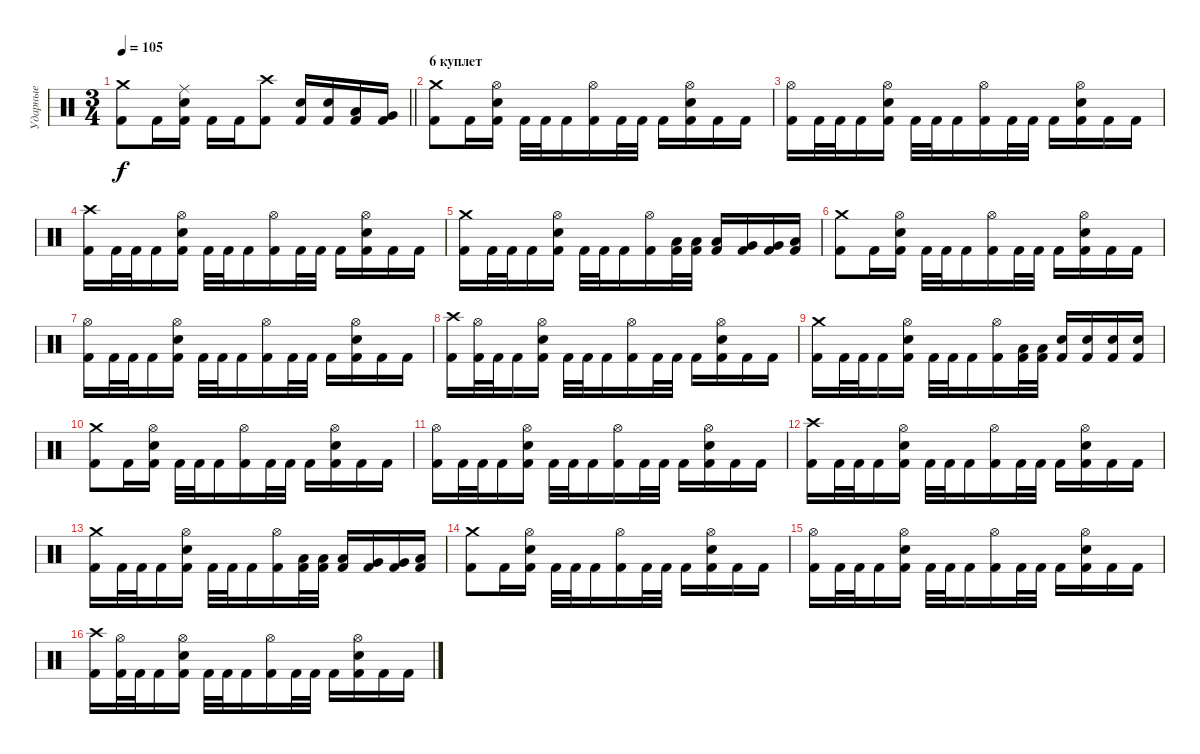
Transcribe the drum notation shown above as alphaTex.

\track ("Ударные" "Ударные") {instrument percussion}
\staff {score}
\articulation defaults
\ts (3 4)
\tempo 105
\clef neutral
\barLineRight lightlight
\ks c
("Kick (hit) 2" "Crash medium (hit)").8{dy f} "Kick (hit) 2".16 ("Kick (hit) 2" "Snare (hit) 2" "Ride (middle)").16 "Kick (hit) 2".16 "Kick (hit) 2".16 ("Kick (hit) 2" "Crash high (hit)").8 ("Kick (hit) 2" "Snare (hit) 2").16 ("Kick (hit) 2" "Snare (hit) 2").16 ("Kick (hit) 2" "Low Tom (hit)").16 ("Kick (hit) 2" "Very Low Tom (hit)").16 |
\section ("" "6 куплет")
("Kick (hit) 2" "Crash medium (hit)").8 "Kick (hit) 2".16 ("Kick (hit) 2" "Snare (hit) 2" "Hi-Hat (open)").16 "Kick (hit) 2".32 "Kick (hit) 2".32 "Kick (hit) 2".16 ("Kick (hit) 2" "Hi-Hat (open)").16 "Kick (hit) 2".32 "Kick (hit) 2".32 "Kick (hit) 2".16 ("Kick (hit) 2" "Snare (hit) 2" "Hi-Hat (open)").16 "Kick (hit) 2".16 "Kick (hit) 2".16 |
("Kick (hit) 2" "Hi-Hat (open)").16 "Kick (hit) 2".32 "Kick (hit) 2".32 "Kick (hit) 2".16 ("Kick (hit) 2" "Snare (hit) 2" "Hi-Hat (open)").16 "Kick (hit) 2".32 "Kick (hit) 2".32 "Kick (hit) 2".16 ("Kick (hit) 2" "Hi-Hat (open)").16 "Kick (hit) 2".32 "Kick (hit) 2".32 "Kick (hit) 2".16 ("Kick (hit) 2" "Snare (hit) 2" "Hi-Hat (open)").16 "Kick (hit) 2".16 "Kick (hit) 2".16 |
("Kick (hit) 2" "Crash high (hit)").16 "Kick (hit) 2".32 "Kick (hit) 2".32 "Kick (hit) 2".16 ("Kick (hit) 2" "Snare (hit) 2" "Hi-Hat (open)").16 "Kick (hit) 2".32 "Kick (hit) 2".32 "Kick (hit) 2".16 ("Kick (hit) 2" "Hi-Hat (open)").16 "Kick (hit) 2".32 "Kick (hit) 2".32 "Kick (hit) 2".16 ("Kick (hit) 2" "Snare (hit) 2" "Hi-Hat (open)").16 "Kick (hit) 2".16 "Kick (hit) 2".16 |
("Kick (hit) 2" "Crash medium (hit)").16 "Kick (hit) 2".32 "Kick (hit) 2".32 "Kick (hit) 2".16 ("Kick (hit) 2" "Snare (hit) 2" "Hi-Hat (open)").16 "Kick (hit) 2".32 "Kick (hit) 2".32 "Kick (hit) 2".16 ("Kick (hit) 2" "Hi-Hat (open)").16 ("Kick (hit) 2" "Low Tom (hit)").32 ("Kick (hit) 2" "Low Tom (hit)").32 ("Kick (hit) 2" "Low Tom (hit)").16 ("Kick (hit) 2" "Very Low Tom (hit)").16 ("Kick (hit) 2" "Very Low Tom (hit)").16 ("Kick (hit) 2" "Low Floor Tom (hit)").16 |
("Kick (hit) 2" "Crash medium (hit)").8 "Kick (hit) 2".16 ("Kick (hit) 2" "Snare (hit) 2" "Hi-Hat (open)").16 "Kick (hit) 2".32 "Kick (hit) 2".32 "Kick (hit) 2".16 ("Kick (hit) 2" "Hi-Hat (open)").16 "Kick (hit) 2".32 "Kick (hit) 2".32 "Kick (hit) 2".16 ("Kick (hit) 2" "Snare (hit) 2" "Hi-Hat (open)").16 "Kick (hit) 2".16 "Kick (hit) 2".16 |
("Kick (hit) 2" "Hi-Hat (open)").16 "Kick (hit) 2".32 "Kick (hit) 2".32 "Kick (hit) 2".16 ("Kick (hit) 2" "Snare (hit) 2" "Hi-Hat (open)").16 "Kick (hit) 2".32 "Kick (hit) 2".32 "Kick (hit) 2".16 ("Kick (hit) 2" "Hi-Hat (open)").16 "Kick (hit) 2".32 "Kick (hit) 2".32 "Kick (hit) 2".16 ("Kick (hit) 2" "Snare (hit) 2" "Hi-Hat (open)").16 "Kick (hit) 2".16 "Kick (hit) 2".16 |
("Kick (hit) 2" "Crash high (hit)").16 ("Kick (hit) 2" "Hi-Hat (open)").32 "Kick (hit) 2".32 "Kick (hit) 2".16 ("Kick (hit) 2" "Snare (hit) 2" "Hi-Hat (open)").16 "Kick (hit) 2".32 "Kick (hit) 2".32 "Kick (hit) 2".16 ("Kick (hit) 2" "Hi-Hat (open)").16 "Kick (hit) 2".32 "Kick (hit) 2".32 "Kick (hit) 2".16 ("Kick (hit) 2" "Snare (hit) 2" "Hi-Hat (open)").16 "Kick (hit) 2".16 "Kick (hit) 2".16 |
("Kick (hit) 2" "Crash medium (hit)").16 "Kick (hit) 2".32 "Kick (hit) 2".32 "Kick (hit) 2".16 ("Kick (hit) 2" "Snare (hit) 2" "Hi-Hat (open)").16 "Kick (hit) 2".32 "Kick (hit) 2".32 "Kick (hit) 2".16 ("Kick (hit) 2" "Hi-Hat (open)").16 ("Kick (hit) 2" "Low Tom (hit)").32 ("Kick (hit) 2" "Low Tom (hit)").32 ("Kick (hit) 2" "Snare (hit) 2").16 ("Kick (hit) 2" "Snare (hit) 2").16 ("Kick (hit) 2" "Snare (hit) 2").16 ("Kick (hit) 2" "Snare (hit) 2").16 |
("Kick (hit) 2" "Crash medium (hit)").8 "Kick (hit) 2".16 ("Kick (hit) 2" "Snare (hit) 2" "Hi-Hat (open)").16 "Kick (hit) 2".32 "Kick (hit) 2".32 "Kick (hit) 2".16 ("Kick (hit) 2" "Hi-Hat (open)").16 "Kick (hit) 2".32 "Kick (hit) 2".32 "Kick (hit) 2".16 ("Kick (hit) 2" "Snare (hit) 2" "Hi-Hat (open)").16 "Kick (hit) 2".16 "Kick (hit) 2".16 |
("Kick (hit) 2" "Hi-Hat (open)").16 "Kick (hit) 2".32 "Kick (hit) 2".32 "Kick (hit) 2".16 ("Kick (hit) 2" "Snare (hit) 2" "Hi-Hat (open)").16 "Kick (hit) 2".32 "Kick (hit) 2".32 "Kick (hit) 2".16 ("Kick (hit) 2" "Hi-Hat (open)").16 "Kick (hit) 2".32 "Kick (hit) 2".32 "Kick (hit) 2".16 ("Kick (hit) 2" "Snare (hit) 2" "Hi-Hat (open)").16 "Kick (hit) 2".16 "Kick (hit) 2".16 |
("Kick (hit) 2" "Crash high (hit)").16 "Kick (hit) 2".32 "Kick (hit) 2".32 "Kick (hit) 2".16 ("Kick (hit) 2" "Snare (hit) 2" "Hi-Hat (open)").16 "Kick (hit) 2".32 "Kick (hit) 2".32 "Kick (hit) 2".16 ("Kick (hit) 2" "Hi-Hat (open)").16 "Kick (hit) 2".32 "Kick (hit) 2".32 "Kick (hit) 2".16 ("Kick (hit) 2" "Snare (hit) 2" "Hi-Hat (open)").16 "Kick (hit) 2".16 "Kick (hit) 2".16 |
("Kick (hit) 2" "Crash medium (hit)").16 "Kick (hit) 2".32 "Kick (hit) 2".32 "Kick (hit) 2".16 ("Kick (hit) 2" "Snare (hit) 2" "Hi-Hat (open)").16 "Kick (hit) 2".32 "Kick (hit) 2".32 "Kick (hit) 2".16 ("Kick (hit) 2" "Hi-Hat (open)").16 ("Kick (hit) 2" "Low Tom (hit)").32 ("Kick (hit) 2" "Low Tom (hit)").32 ("Kick (hit) 2" "Low Tom (hit)").16 ("Kick (hit) 2" "Very Low Tom (hit)").16 ("Kick (hit) 2" "Very Low Tom (hit)").16 ("Kick (hit) 2" "Low Floor Tom (hit)").16 |
("Kick (hit) 2" "Crash medium (hit)").8 "Kick (hit) 2".16 ("Kick (hit) 2" "Snare (hit) 2" "Hi-Hat (open)").16 "Kick (hit) 2".32 "Kick (hit) 2".32 "Kick (hit) 2".16 ("Kick (hit) 2" "Hi-Hat (open)").16 "Kick (hit) 2".32 "Kick (hit) 2".32 "Kick (hit) 2".16 ("Kick (hit) 2" "Snare (hit) 2" "Hi-Hat (open)").16 "Kick (hit) 2".16 "Kick (hit) 2".16 |
("Kick (hit) 2" "Hi-Hat (open)").16 "Kick (hit) 2".32 "Kick (hit) 2".32 "Kick (hit) 2".16 ("Kick (hit) 2" "Snare (hit) 2" "Hi-Hat (open)").16 "Kick (hit) 2".32 "Kick (hit) 2".32 "Kick (hit) 2".16 ("Kick (hit) 2" "Hi-Hat (open)").16 "Kick (hit) 2".32 "Kick (hit) 2".32 "Kick (hit) 2".16 ("Kick (hit) 2" "Snare (hit) 2" "Hi-Hat (open)").16 "Kick (hit) 2".16 "Kick (hit) 2".16 |
("Kick (hit) 2" "Crash high (hit)").16 ("Kick (hit) 2" "Hi-Hat (open)").32 "Kick (hit) 2".32 "Kick (hit) 2".16 ("Kick (hit) 2" "Snare (hit) 2" "Hi-Hat (open)").16 "Kick (hit) 2".32 "Kick (hit) 2".32 "Kick (hit) 2".16 ("Kick (hit) 2" "Hi-Hat (open)").16 "Kick (hit) 2".32 "Kick (hit) 2".32 "Kick (hit) 2".16 ("Kick (hit) 2" "Snare (hit) 2" "Hi-Hat (open)").16 "Kick (hit) 2".16 "Kick (hit) 2".16
